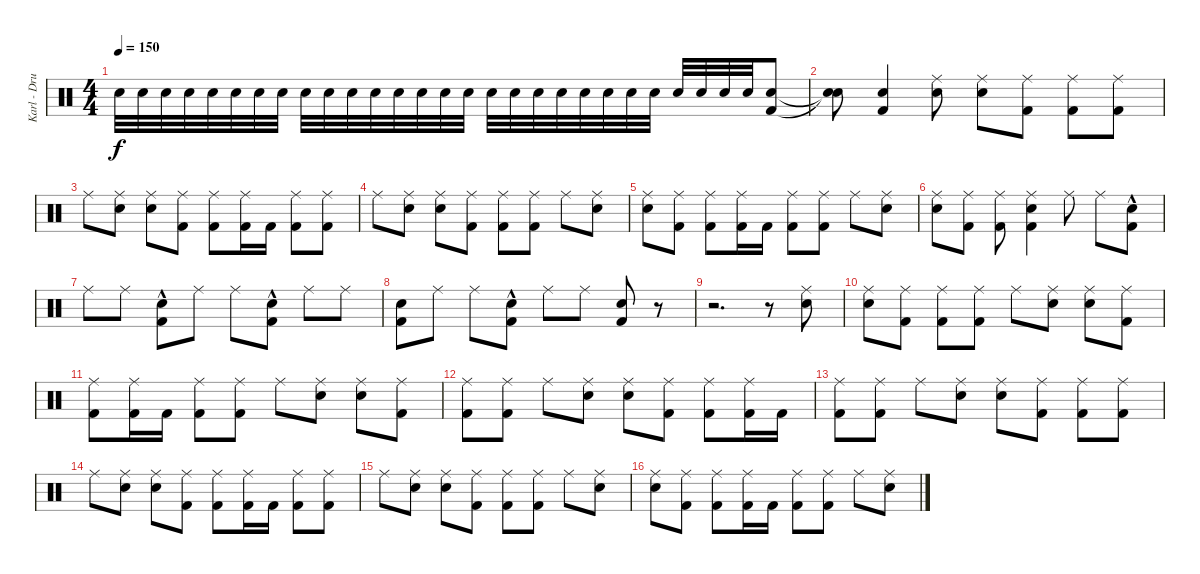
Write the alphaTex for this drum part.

\track ("Karl - Drums" "Karl - Dru") {instrument percussion}
\staff {score}
\articulation defaults
\ts (4 4)
\tempo 150
\clef neutral
\ks c "Snare (hit) 2".32{dy f} "Snare (hit) 2".32 "Snare (hit) 2".32 "Snare (hit) 2".32 "Snare (hit) 2".32 "Snare (hit) 2".32 "Snare (hit) 2".32 "Snare (hit) 2".32 "Snare (hit) 2".32 "Snare (hit) 2".32 "Snare (hit) 2".32 "Snare (hit) 2".32 "Snare (hit) 2".32 "Snare (hit) 2".32 "Snare (hit) 2".32 "Snare (hit) 2".32 "Snare (hit) 2".32 "Snare (hit) 2".32 "Snare (hit) 2".32 "Snare (hit) 2".32 "Snare (hit) 2".32 "Snare (hit) 2".32 "Snare (hit) 2".32 "Snare (hit) 2".32 "Snare (hit) 2".32 "Snare (hit) 2".32 "Snare (hit) 2".32 "Snare (hit) 2".32
("Snare (hit) 2" "Kick (hit) 2").8 |
("Snare (hit)"{t} "Snare (hit)"{t}).8 ("Kick (hit) 2" "Snare (hit) 2").4 ("Ride (middle)" "Snare (hit) 2").8 ("Ride (middle)" "Snare (hit) 2").8 ("Ride (middle)" "Kick (hit) 2").8 ("Ride (middle)" "Kick (hit) 2").8 ("Ride (middle)" "Kick (hit) 2").8 |
"Ride (middle)".8 ("Ride (middle)" "Snare (hit) 2").8 ("Ride (middle)" "Snare (hit) 2").8 ("Ride (middle)" "Kick (hit) 2").8 ("Ride (middle)" "Kick (hit) 2").8 ("Ride (middle)" "Kick (hit) 2").16 "Kick (hit) 2".16 ("Ride (middle)" "Kick (hit) 2").8 ("Ride (middle)" "Kick (hit) 2").8 |
"Ride (middle)".8 ("Ride (middle)" "Snare (hit) 2").8 ("Ride (middle)" "Snare (hit) 2").8 ("Ride (middle)" "Kick (hit) 2").8 ("Ride (middle)" "Kick (hit) 2").8 ("Ride (middle)" "Kick (hit) 2").8 "Ride (middle)".8 ("Ride (middle)" "Snare (hit) 2").8 |
("Ride (middle)" "Snare (hit) 2").8 ("Ride (middle)" "Kick (hit) 2").8 ("Ride (middle)" "Kick (hit) 2").8 ("Ride (middle)" "Kick (hit) 2").16 "Kick (hit) 2".16 ("Ride (middle)" "Kick (hit) 2").8 ("Ride (middle)" "Kick (hit) 2").8 "Ride (middle)".8 ("Ride (middle)" "Snare (hit) 2").8 |
("Ride (middle)" "Snare (hit) 2").8 ("Ride (middle)" "Kick (hit) 2").8 ("Ride (middle)" "Kick (hit) 2").8 ("Ride (middle)" "Snare (hit) 2" "Kick (hit) 2").4 "Ride (middle)".8 "Ride (middle)".8 ("Kick (hit) 2"{hac} "Snare (hit) 2"{hac}).8 |
"Ride (middle)".8 "Ride (middle)".8 ("Snare (hit) 2"{hac} "Kick (hit) 2"{hac}).8 "Ride (middle)".8 "Ride (middle)".8 ("Kick (hit) 2"{hac} "Snare (hit) 2"{hac}).8 "Ride (middle)".8 "Ride (middle)".8 |
("Kick (hit) 2" "Snare (hit) 2").8 "Ride (middle)".8 "Ride (middle)".8 ("Kick (hit) 2"{hac} "Snare (hit) 2"{hac}).8 "Ride (middle)".8 "Ride (middle)".8 ("Snare (hit) 2" "Kick (hit) 2").8 r.8 |
r.2{d} r.8 ("Ride (middle)" "Snare (hit) 2").8 |
("Ride (middle)" "Snare (hit) 2").8 ("Ride (middle)" "Kick (hit) 2").8 ("Ride (middle)" "Kick (hit) 2").8 ("Ride (middle)" "Kick (hit) 2").8 "Ride (middle)".8 ("Ride (middle)" "Snare (hit) 2").8 ("Ride (middle)" "Snare (hit) 2").8 ("Ride (middle)" "Kick (hit) 2").8 |
("Ride (middle)" "Kick (hit) 2").8 ("Ride (middle)" "Kick (hit) 2").16 "Kick (hit) 2".16 ("Ride (middle)" "Kick (hit) 2").8 ("Ride (middle)" "Kick (hit) 2").8 "Ride (middle)".8 ("Ride (middle)" "Snare (hit) 2").8 ("Ride (middle)" "Snare (hit) 2").8 ("Ride (middle)" "Kick (hit) 2").8 |
("Ride (middle)" "Kick (hit) 2").8 ("Ride (middle)" "Kick (hit) 2").8 "Ride (middle)".8 ("Ride (middle)" "Snare (hit) 2").8 ("Ride (middle)" "Snare (hit) 2").8 ("Ride (middle)" "Kick (hit) 2").8 ("Ride (middle)" "Kick (hit) 2").8 ("Ride (middle)" "Kick (hit) 2").16 "Kick (hit) 2".16 |
("Ride (middle)" "Kick (hit) 2").8 ("Ride (middle)" "Kick (hit) 2").8 "Ride (middle)".8 ("Ride (middle)" "Snare (hit) 2").8 ("Ride (middle)" "Snare (hit) 2").8 ("Ride (middle)" "Kick (hit) 2").8 ("Ride (middle)" "Kick (hit) 2").8 ("Ride (middle)" "Kick (hit) 2").8 |
"Ride (middle)".8 ("Ride (middle)" "Snare (hit) 2").8 ("Ride (middle)" "Snare (hit) 2").8 ("Ride (middle)" "Kick (hit) 2").8 ("Ride (middle)" "Kick (hit) 2").8 ("Ride (middle)" "Kick (hit) 2").16 "Kick (hit) 2".16 ("Ride (middle)" "Kick (hit) 2").8 ("Ride (middle)" "Kick (hit) 2").8 |
"Ride (middle)".8 ("Ride (middle)" "Snare (hit) 2").8 ("Ride (middle)" "Snare (hit) 2").8 ("Ride (middle)" "Kick (hit) 2").8 ("Ride (middle)" "Kick (hit) 2").8 ("Ride (middle)" "Kick (hit) 2").8 "Ride (middle)".8 ("Ride (middle)" "Snare (hit) 2").8 |
("Ride (middle)" "Snare (hit) 2").8 ("Ride (middle)" "Kick (hit) 2").8 ("Ride (middle)" "Kick (hit) 2").8 ("Ride (middle)" "Kick (hit) 2").16 "Kick (hit) 2".16 ("Ride (middle)" "Kick (hit) 2").8 ("Ride (middle)" "Kick (hit) 2").8 "Ride (middle)".8 ("Ride (middle)" "Snare (hit) 2").8
